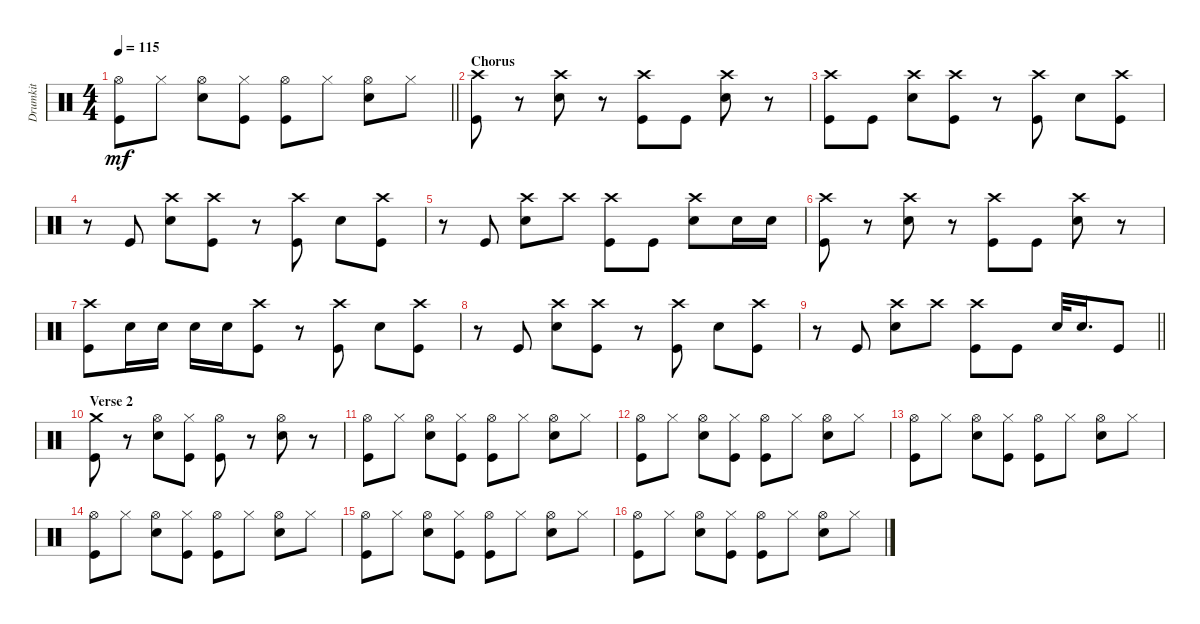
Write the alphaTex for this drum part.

\track ("Drumkit" "Drumkit") {instrument percussion}
\staff {score}
\articulation defaults
\ts (4 4)
\tempo 115
\clef neutral
\barLineRight lightlight
\ks c
("Hi-Hat (open)" "Kick (hit)").8{dy mf} "Hi-Hat (closed)".8 ("Hi-Hat (open)" "Snare (hit) 2").8 ("Hi-Hat (closed)" "Kick (hit)").8 ("Hi-Hat (open)" "Kick (hit)").8 "Hi-Hat (closed)".8 ("Hi-Hat (open)" "Snare (hit) 2").8 "Hi-Hat (closed)".8 |
\section ("" "Chorus")
("Kick (hit)" "Crash high (hit)").8 r.8 ("Snare (hit) 2" "Crash high (hit)").8 r.8 ("Kick (hit)" "Crash high (hit)").8 "Kick (hit)".8 ("Snare (hit) 2" "Crash high (hit)").8 r.8 |
("Kick (hit)" "Crash high (hit)").8 "Kick (hit)".8 ("Snare (hit) 2" "Crash high (hit)").8 ("Kick (hit)" "Crash high (hit)").8 r.8 ("Kick (hit)" "Crash high (hit)").8 "Snare (hit) 2".8 ("Kick (hit)" "Crash high (hit)").8 |
r.8 "Kick (hit)".8 ("Snare (hit) 2" "Crash high (hit)").8 ("Kick (hit)" "Crash high (hit)").8 r.8 ("Kick (hit)" "Crash high (hit)").8 "Snare (hit) 2".8 ("Kick (hit)" "Crash high (hit)").8 |
r.8 "Kick (hit)".8 ("Snare (hit) 2" "Crash high (hit)").8 "Crash high (hit)".8 ("Kick (hit)" "Crash high (hit)").8 "Kick (hit)".8 ("Snare (hit) 2" "Crash high (hit)").8 "Snare (hit) 2".16 "Snare (hit) 2".16 |
("Kick (hit)" "Crash high (hit)").8 r.8 ("Snare (hit) 2" "Crash high (hit)").8 r.8 ("Kick (hit)" "Crash high (hit)").8 "Kick (hit)".8 ("Snare (hit) 2" "Crash high (hit)").8 r.8 |
("Kick (hit)" "Crash high (hit)").8 "Snare (hit) 2".16 "Snare (hit) 2".16 "Snare (hit) 2".16 "Snare (hit) 2".16 ("Kick (hit)" "Crash high (hit)").8 r.8 ("Kick (hit)" "Crash high (hit)").8 "Snare (hit) 2".8 ("Kick (hit)" "Crash high (hit)").8 |
r.8 "Kick (hit)".8 ("Snare (hit) 2" "Crash high (hit)").8 ("Kick (hit)" "Crash high (hit)").8 r.8 ("Kick (hit)" "Crash high (hit)").8 "Snare (hit) 2".8 ("Kick (hit)" "Crash high (hit)").8 |
\barLineRight lightlight
r.8 "Kick (hit)".8 ("Snare (hit) 2" "Crash high (hit)").8 "Crash high (hit)".8 ("Kick (hit)" "Crash high (hit)").8 "Kick (hit)".8 "Snare (hit) 2".32 "Snare (hit) 2".16{d} "Kick (hit)".8 |
\section ("" "Verse 2")
("Crash medium (hit)" "Kick (hit)").8 r.8 ("Hi-Hat (open)" "Snare (hit) 2").8 ("Hi-Hat (closed)" "Kick (hit)").8 ("Hi-Hat (open)" "Kick (hit)").8 r.8 ("Hi-Hat (open)" "Snare (hit) 2").8 r.8 |
("Hi-Hat (open)" "Kick (hit)").8 "Hi-Hat (closed)".8 ("Hi-Hat (open)" "Snare (hit) 2").8 ("Hi-Hat (closed)" "Kick (hit)").8 ("Hi-Hat (open)" "Kick (hit)").8 "Hi-Hat (closed)".8 ("Hi-Hat (open)" "Snare (hit) 2").8 "Hi-Hat (closed)".8 |
("Hi-Hat (open)" "Kick (hit)").8 "Hi-Hat (closed)".8 ("Hi-Hat (open)" "Snare (hit) 2").8 ("Hi-Hat (closed)" "Kick (hit)").8 ("Hi-Hat (open)" "Kick (hit)").8 "Hi-Hat (closed)".8 ("Hi-Hat (open)" "Snare (hit) 2").8 "Hi-Hat (closed)".8 |
("Hi-Hat (open)" "Kick (hit)").8 "Hi-Hat (closed)".8 ("Hi-Hat (open)" "Snare (hit) 2").8 ("Hi-Hat (closed)" "Kick (hit)").8 ("Hi-Hat (open)" "Kick (hit)").8 "Hi-Hat (closed)".8 ("Hi-Hat (open)" "Snare (hit) 2").8 "Hi-Hat (closed)".8 |
("Hi-Hat (open)" "Kick (hit)").8 "Hi-Hat (closed)".8 ("Hi-Hat (open)" "Snare (hit) 2").8 ("Hi-Hat (closed)" "Kick (hit)").8 ("Hi-Hat (open)" "Kick (hit)").8 "Hi-Hat (closed)".8 ("Hi-Hat (open)" "Snare (hit) 2").8 "Hi-Hat (closed)".8 |
("Hi-Hat (open)" "Kick (hit)").8 "Hi-Hat (closed)".8 ("Hi-Hat (open)" "Snare (hit) 2").8 ("Hi-Hat (closed)" "Kick (hit)").8 ("Hi-Hat (open)" "Kick (hit)").8 "Hi-Hat (closed)".8 ("Hi-Hat (open)" "Snare (hit) 2").8 "Hi-Hat (closed)".8 |
("Hi-Hat (open)" "Kick (hit)").8 "Hi-Hat (closed)".8 ("Hi-Hat (open)" "Snare (hit) 2").8 ("Hi-Hat (closed)" "Kick (hit)").8 ("Hi-Hat (open)" "Kick (hit)").8 "Hi-Hat (closed)".8 ("Hi-Hat (open)" "Snare (hit) 2").8 "Hi-Hat (closed)".8
